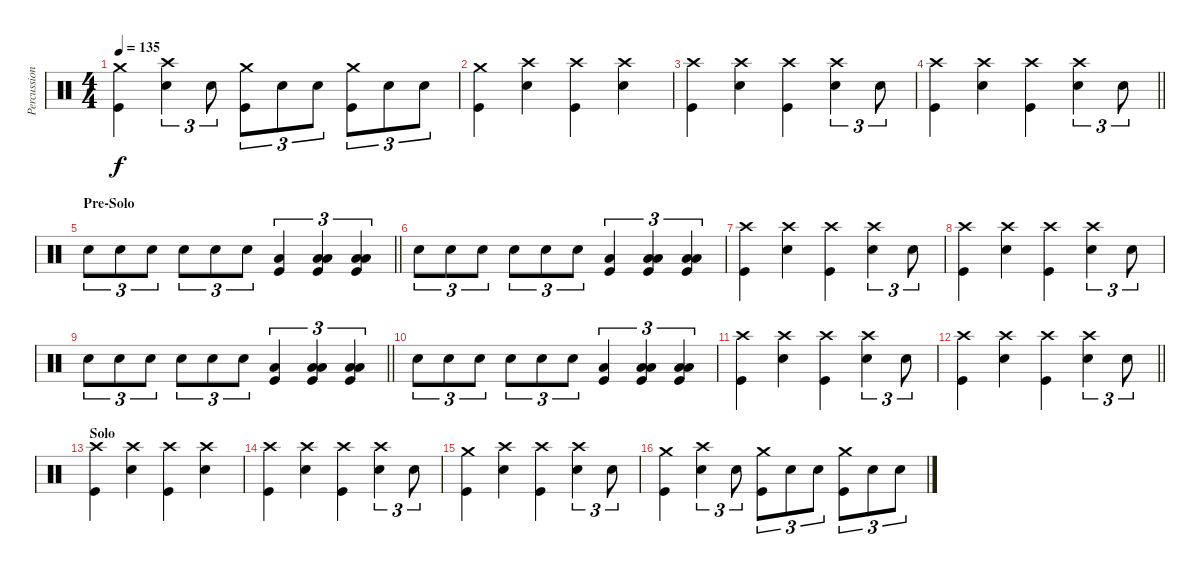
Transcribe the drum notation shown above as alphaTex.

\track ("Percussion" "Percussion") {instrument percussion}
\staff {score}
\articulation defaults
\ts (4 4)
\tempo 135
\clef neutral
\ks c
("Crash medium (hit)" "Kick (hit)").4{dy f} ("Crash high (hit)" "Electric Snare (hit)").4{tu (3 2)} "Electric Snare (hit)".8{tu (3 2)} ("Crash medium (hit)" "Kick (hit)").8{tu (3 2)} "Electric Snare (hit)".8{tu (3 2)} "Electric Snare (hit)".8{tu (3 2)} ("Crash medium (hit)" "Kick (hit)").8{tu (3 2)} "Electric Snare (hit)".8{tu (3 2)} "Electric Snare (hit)".8{tu (3 2)} |
("Crash medium (hit)" "Kick (hit)").4 ("Crash high (hit)" "Electric Snare (hit)").4 ("Crash high (hit)" "Kick (hit)").4 ("Crash high (hit)" "Electric Snare (hit)").4 |
("Crash high (hit)" "Kick (hit)").4 ("Crash high (hit)" "Electric Snare (hit)").4 ("Crash high (hit)" "Kick (hit)").4 ("Crash high (hit)" "Electric Snare (hit)").4{tu (3 2)} "Electric Snare (hit)".8{tu (3 2)} |
\barLineRight lightlight
("Crash high (hit)" "Kick (hit)").4 ("Crash high (hit)" "Electric Snare (hit)").4 ("Crash high (hit)" "Kick (hit)").4 ("Crash high (hit)" "Electric Snare (hit)").4{tu (3 2)} "Electric Snare (hit)".8{tu (3 2)} |
\section ("" "Pre-Solo")
\barLineRight lightlight "Electric Snare (hit)".8{tu (3 2)} "Electric Snare (hit)".8{tu (3 2)} "Electric Snare (hit)".8{tu (3 2)} "Electric Snare (hit)".8{tu (3 2)} "Electric Snare (hit)".8{tu (3 2)} "Electric Snare (hit)".8{tu (3 2)}
("Low Tom (hit)" "Kick (hit)").4{tu (3 2)} ("Low Tom (hit)" "Low Floor Tom (hit)" "Kick (hit)").4{tu (3 2)} ("Low Tom (hit)" "Low Floor Tom (hit)" "Kick (hit)").4{tu (3 2)} |
"Electric Snare (hit)".8{tu (3 2)} "Electric Snare (hit)".8{tu (3 2)} "Electric Snare (hit)".8{tu (3 2)} "Electric Snare (hit)".8{tu (3 2)} "Electric Snare (hit)".8{tu (3 2)} "Electric Snare (hit)".8{tu (3 2)} ("Low Tom (hit)" "Kick (hit)").4{tu (3 2)} ("Low Tom (hit)" "Low Floor Tom (hit)" "Kick (hit)").4{tu (3 2)} ("Low Tom (hit)" "Low Floor Tom (hit)" "Kick (hit)").4{tu (3 2)} |
("Crash high (hit)" "Kick (hit)").4 ("Crash high (hit)" "Electric Snare (hit)").4 ("Crash high (hit)" "Kick (hit)").4 ("Crash high (hit)" "Electric Snare (hit)").4{tu (3 2)} "Electric Snare (hit)".8{tu (3 2)} |
("Crash high (hit)" "Kick (hit)").4 ("Crash high (hit)" "Electric Snare (hit)").4 ("Crash high (hit)" "Kick (hit)").4 ("Crash high (hit)" "Electric Snare (hit)").4{tu (3 2)} "Electric Snare (hit)".8{tu (3 2)} |
\barLineRight lightlight "Electric Snare (hit)".8{tu (3 2)} "Electric Snare (hit)".8{tu (3 2)} "Electric Snare (hit)".8{tu (3 2)} "Electric Snare (hit)".8{tu (3 2)} "Electric Snare (hit)".8{tu (3 2)} "Electric Snare (hit)".8{tu (3 2)}
("Low Tom (hit)" "Kick (hit)").4{tu (3 2)} ("Low Tom (hit)" "Low Floor Tom (hit)" "Kick (hit)").4{tu (3 2)} ("Low Tom (hit)" "Low Floor Tom (hit)" "Kick (hit)").4{tu (3 2)} |
"Electric Snare (hit)".8{tu (3 2)} "Electric Snare (hit)".8{tu (3 2)} "Electric Snare (hit)".8{tu (3 2)} "Electric Snare (hit)".8{tu (3 2)} "Electric Snare (hit)".8{tu (3 2)} "Electric Snare (hit)".8{tu (3 2)} ("Low Tom (hit)" "Kick (hit)").4{tu (3 2)} ("Low Tom (hit)" "Low Floor Tom (hit)" "Kick (hit)").4{tu (3 2)} ("Low Tom (hit)" "Low Floor Tom (hit)" "Kick (hit)").4{tu (3 2)} |
("Crash high (hit)" "Kick (hit)").4 ("Crash high (hit)" "Electric Snare (hit)").4 ("Crash high (hit)" "Kick (hit)").4 ("Crash high (hit)" "Electric Snare (hit)").4{tu (3 2)} "Electric Snare (hit)".8{tu (3 2)} |
\barLineRight lightlight
("Crash high (hit)" "Kick (hit)").4 ("Crash high (hit)" "Electric Snare (hit)").4 ("Crash high (hit)" "Kick (hit)").4 ("Crash high (hit)" "Electric Snare (hit)").4{tu (3 2)} "Electric Snare (hit)".8{tu (3 2)} |
\section ("" "Solo")
("Crash high (hit)" "Kick (hit)").4 ("Crash high (hit)" "Electric Snare (hit)").4 ("Crash high (hit)" "Kick (hit)").4 ("Crash high (hit)" "Electric Snare (hit)").4 |
("Crash high (hit)" "Kick (hit)").4 ("Crash high (hit)" "Electric Snare (hit)").4 ("Crash high (hit)" "Kick (hit)").4 ("Crash high (hit)" "Electric Snare (hit)").4{tu (3 2)} "Electric Snare (hit)".8{tu (3 2)} |
("Crash medium (hit)" "Kick (hit)").4 ("Crash high (hit)" "Electric Snare (hit)").4 ("Crash high (hit)" "Kick (hit)").4 ("Crash high (hit)" "Electric Snare (hit)").4{tu (3 2)} "Electric Snare (hit)".8{tu (3 2)} |
("Crash medium (hit)" "Kick (hit)").4 ("Crash high (hit)" "Electric Snare (hit)").4{tu (3 2)} "Electric Snare (hit)".8{tu (3 2)} ("Crash medium (hit)" "Kick (hit)").8{tu (3 2)} "Electric Snare (hit)".8{tu (3 2)} "Electric Snare (hit)".8{tu (3 2)} ("Crash medium (hit)" "Kick (hit)").8{tu (3 2)} "Electric Snare (hit)".8{tu (3 2)} "Electric Snare (hit)".8{tu (3 2)}
